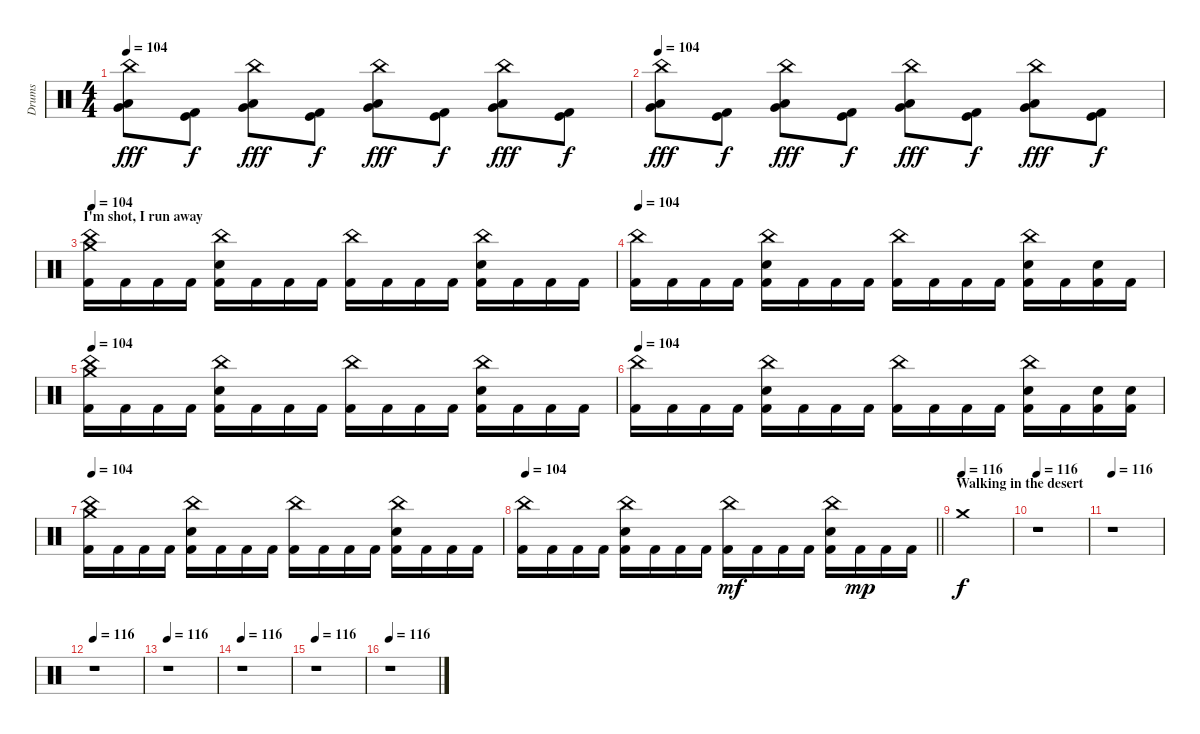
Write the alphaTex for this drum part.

\track ("Drums" "Drums") {instrument percussion}
\staff {score}
\articulation defaults
\ts (4 4)
\tempo 104
\clef neutral
\ks c
("China (hit)" "Low Floor Tom (hit)" "Very Low Tom (hit)").8{dy fff} ("Kick (hit)" "Kick (hit) 2").8{dy f} ("China (hit)" "Low Floor Tom (hit)" "Very Low Tom (hit)").8{dy fff} ("Kick (hit)" "Kick (hit) 2").8{dy f} ("China (hit)" "Low Floor Tom (hit)" "Very Low Tom (hit)").8{dy fff} ("Kick (hit)" "Kick (hit) 2").8{dy f} ("China (hit)" "Low Floor Tom (hit)" "Very Low Tom (hit)").8{dy fff} ("Kick (hit)" "Kick (hit) 2").8{dy f} |
\tempo 104
("China (hit)" "Low Floor Tom (hit)" "Very Low Tom (hit)").8{dy fff} ("Kick (hit)" "Kick (hit) 2").8{dy f} ("China (hit)" "Low Floor Tom (hit)" "Very Low Tom (hit)").8{dy fff} ("Kick (hit)" "Kick (hit) 2").8{dy f} ("China (hit)" "Low Floor Tom (hit)" "Very Low Tom (hit)").8{dy fff} ("Kick (hit)" "Kick (hit) 2").8{dy f} ("China (hit)" "Low Floor Tom (hit)" "Very Low Tom (hit)").8{dy fff} ("Kick (hit)" "Kick (hit) 2").8{dy f} |
\section ("" "I'm shot, I run away")
\tempo 104
("Crash medium (hit)" "China (hit)" "Kick (hit) 2").16 "Kick (hit) 2".16 "Kick (hit) 2".16 "Kick (hit) 2".16 ("China (hit)" "Snare (hit) 2" "Kick (hit) 2").16 "Kick (hit) 2".16 "Kick (hit) 2".16 "Kick (hit) 2".16 ("China (hit)" "Kick (hit) 2").16 "Kick (hit) 2".16 "Kick (hit) 2".16 "Kick (hit) 2".16 ("China (hit)" "Snare (hit) 2" "Kick (hit) 2").16 "Kick (hit) 2".16 "Kick (hit) 2".16 "Kick (hit) 2".16 |
\tempo 104
("China (hit)" "Kick (hit) 2").16 "Kick (hit) 2".16 "Kick (hit) 2".16 "Kick (hit) 2".16 ("China (hit)" "Snare (hit) 2" "Kick (hit) 2").16 "Kick (hit) 2".16 "Kick (hit) 2".16 "Kick (hit) 2".16 ("China (hit)" "Kick (hit) 2").16 "Kick (hit) 2".16 "Kick (hit) 2".16 "Kick (hit) 2".16 ("China (hit)" "Snare (hit) 2" "Kick (hit) 2").16 "Kick (hit) 2".16 ("Snare (hit) 2" "Kick (hit) 2").16 "Kick (hit) 2".16 |
\tempo 104
("Crash medium (hit)" "China (hit)" "Kick (hit) 2").16 "Kick (hit) 2".16 "Kick (hit) 2".16 "Kick (hit) 2".16 ("China (hit)" "Snare (hit) 2" "Kick (hit) 2").16 "Kick (hit) 2".16 "Kick (hit) 2".16 "Kick (hit) 2".16 ("China (hit)" "Kick (hit) 2").16 "Kick (hit) 2".16 "Kick (hit) 2".16 "Kick (hit) 2".16 ("China (hit)" "Snare (hit) 2" "Kick (hit) 2").16 "Kick (hit) 2".16 "Kick (hit) 2".16 "Kick (hit) 2".16 |
\tempo 104
("China (hit)" "Kick (hit) 2").16 "Kick (hit) 2".16 "Kick (hit) 2".16 "Kick (hit) 2".16 ("China (hit)" "Snare (hit) 2" "Kick (hit) 2").16 "Kick (hit) 2".16 "Kick (hit) 2".16 "Kick (hit) 2".16 ("China (hit)" "Kick (hit) 2").16 "Kick (hit) 2".16 "Kick (hit) 2".16 "Kick (hit) 2".16 ("China (hit)" "Snare (hit) 2" "Kick (hit) 2").16 "Kick (hit) 2".16 ("Snare (hit) 2" "Kick (hit) 2").16 ("Snare (hit) 2" "Kick (hit) 2").16 |
\tempo 104
("Crash medium (hit)" "China (hit)" "Kick (hit) 2").16 "Kick (hit) 2".16 "Kick (hit) 2".16 "Kick (hit) 2".16 ("China (hit)" "Snare (hit) 2" "Kick (hit) 2").16 "Kick (hit) 2".16 "Kick (hit) 2".16 "Kick (hit) 2".16 ("China (hit)" "Kick (hit) 2").16 "Kick (hit) 2".16 "Kick (hit) 2".16 "Kick (hit) 2".16 ("China (hit)" "Snare (hit) 2" "Kick (hit) 2").16 "Kick (hit) 2".16 "Kick (hit) 2".16 "Kick (hit) 2".16 |
\tempo 104
\barLineRight lightlight
("China (hit)" "Kick (hit) 2").16 "Kick (hit) 2".16 "Kick (hit) 2".16 "Kick (hit) 2".16 ("China (hit)" "Snare (hit) 2" "Kick (hit) 2").16 "Kick (hit) 2".16 "Kick (hit) 2".16 "Kick (hit) 2".16 ("China (hit)" "Kick (hit) 2").16{dy mf} "Kick (hit) 2".16 "Kick (hit) 2".16 "Kick (hit) 2".16 ("China (hit)" "Snare (hit) 2" "Kick (hit) 2").16 "Kick (hit) 2".16{dy mp} "Kick (hit) 2".16 "Kick (hit) 2".16 |
\section ("" "Walking in the desert")
\tempo (116)
"Crash medium (hit)".1{dy f} |
\tempo 116
r.1 |
\tempo 116
r.1 |
\tempo 116
r.1 |
\tempo 116
r.1 |
\tempo 116
r.1 |
\tempo 116
r.1 |
\tempo 116
r.1
